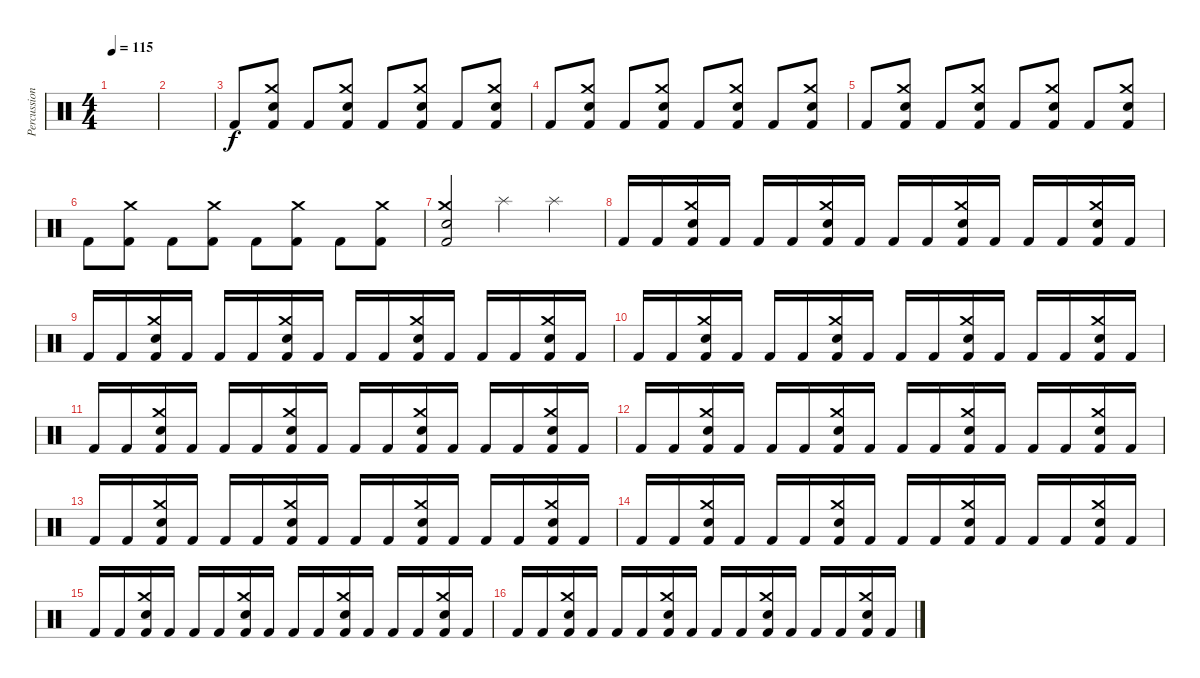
\track ("Percussion" "Percussion") {instrument percussion}
\staff {score}
\articulation defaults
\ts (4 4)
\tempo 115
\clef neutral
\ks c
|
|
"Kick (hit) 2".8 ("Crash medium (hit)" "Kick (hit) 2" "Electric Snare (hit)").8 "Kick (hit) 2".8 ("Crash medium (hit)" "Kick (hit) 2" "Electric Snare (hit)").8 "Kick (hit) 2".8 ("Crash medium (hit)" "Kick (hit) 2" "Electric Snare (hit)").8 "Kick (hit) 2".8 ("Crash medium (hit)" "Kick (hit) 2" "Electric Snare (hit)").8 |
"Kick (hit) 2".8 ("Crash medium (hit)" "Kick (hit) 2" "Electric Snare (hit)").8 "Kick (hit) 2".8 ("Crash medium (hit)" "Kick (hit) 2" "Electric Snare (hit)").8 "Kick (hit) 2".8 ("Crash medium (hit)" "Kick (hit) 2" "Electric Snare (hit)").8 "Kick (hit) 2".8 ("Crash medium (hit)" "Kick (hit) 2" "Electric Snare (hit)").8 |
"Kick (hit) 2".8 ("Crash medium (hit)" "Kick (hit) 2" "Electric Snare (hit)").8 "Kick (hit) 2".8 ("Crash medium (hit)" "Kick (hit) 2" "Electric Snare (hit)").8 "Kick (hit) 2".8 ("Crash medium (hit)" "Kick (hit) 2" "Electric Snare (hit)").8 "Kick (hit) 2".8 ("Crash medium (hit)" "Kick (hit) 2" "Electric Snare (hit)").8 |
"Kick (hit) 2".8 ("Kick (hit) 2" "Crash medium (hit)").8 "Kick (hit) 2".8 ("Kick (hit) 2" "Crash medium (hit)").8 "Kick (hit) 2".8 ("Kick (hit) 2" "Crash medium (hit)").8 "Kick (hit) 2".8 ("Kick (hit) 2" "Crash medium (hit)").8 |
("Kick (hit) 2" "Crash medium (hit)" "Electric Snare (hit)").2 "Splash (hit)".4 "Splash (hit)".4 |
"Kick (hit) 2".16 "Kick (hit) 2".16 ("Crash medium (hit)" "Electric Snare (hit)" "Kick (hit) 2").16 "Kick (hit) 2".16 "Kick (hit) 2".16 "Kick (hit) 2".16 ("Crash medium (hit)" "Electric Snare (hit)" "Kick (hit) 2").16 "Kick (hit) 2".16 "Kick (hit) 2".16 "Kick (hit) 2".16 ("Electric Snare (hit)" "Crash medium (hit)" "Kick (hit) 2").16 "Kick (hit) 2".16 "Kick (hit) 2".16 "Kick (hit) 2".16 ("Crash medium (hit)" "Electric Snare (hit)" "Kick (hit) 2").16 "Kick (hit) 2".16 |
"Kick (hit) 2".16 "Kick (hit) 2".16 ("Crash medium (hit)" "Electric Snare (hit)" "Kick (hit) 2").16 "Kick (hit) 2".16 "Kick (hit) 2".16 "Kick (hit) 2".16 ("Crash medium (hit)" "Electric Snare (hit)" "Kick (hit) 2").16 "Kick (hit) 2".16 "Kick (hit) 2".16 "Kick (hit) 2".16 ("Electric Snare (hit)" "Crash medium (hit)" "Kick (hit) 2").16 "Kick (hit) 2".16 "Kick (hit) 2".16 "Kick (hit) 2".16 ("Crash medium (hit)" "Electric Snare (hit)" "Kick (hit) 2").16 "Kick (hit) 2".16 |
"Kick (hit) 2".16 "Kick (hit) 2".16 ("Crash medium (hit)" "Electric Snare (hit)" "Kick (hit) 2").16 "Kick (hit) 2".16 "Kick (hit) 2".16 "Kick (hit) 2".16 ("Crash medium (hit)" "Electric Snare (hit)" "Kick (hit) 2").16 "Kick (hit) 2".16 "Kick (hit) 2".16 "Kick (hit) 2".16 ("Electric Snare (hit)" "Crash medium (hit)" "Kick (hit) 2").16 "Kick (hit) 2".16 "Kick (hit) 2".16 "Kick (hit) 2".16 ("Crash medium (hit)" "Electric Snare (hit)" "Kick (hit) 2").16 "Kick (hit) 2".16 |
"Kick (hit) 2".16 "Kick (hit) 2".16 ("Crash medium (hit)" "Electric Snare (hit)" "Kick (hit) 2").16 "Kick (hit) 2".16 "Kick (hit) 2".16 "Kick (hit) 2".16 ("Crash medium (hit)" "Electric Snare (hit)" "Kick (hit) 2").16 "Kick (hit) 2".16 "Kick (hit) 2".16 "Kick (hit) 2".16 ("Electric Snare (hit)" "Crash medium (hit)" "Kick (hit) 2").16 "Kick (hit) 2".16 "Kick (hit) 2".16 "Kick (hit) 2".16 ("Crash medium (hit)" "Electric Snare (hit)" "Kick (hit) 2").16 "Kick (hit) 2".16 |
"Kick (hit) 2".16 "Kick (hit) 2".16 ("Crash medium (hit)" "Electric Snare (hit)" "Kick (hit) 2").16 "Kick (hit) 2".16 "Kick (hit) 2".16 "Kick (hit) 2".16 ("Crash medium (hit)" "Electric Snare (hit)" "Kick (hit) 2").16 "Kick (hit) 2".16 "Kick (hit) 2".16 "Kick (hit) 2".16 ("Electric Snare (hit)" "Crash medium (hit)" "Kick (hit) 2").16 "Kick (hit) 2".16 "Kick (hit) 2".16 "Kick (hit) 2".16 ("Crash medium (hit)" "Electric Snare (hit)" "Kick (hit) 2").16 "Kick (hit) 2".16 |
"Kick (hit) 2".16 "Kick (hit) 2".16 ("Crash medium (hit)" "Electric Snare (hit)" "Kick (hit) 2").16 "Kick (hit) 2".16 "Kick (hit) 2".16 "Kick (hit) 2".16 ("Crash medium (hit)" "Electric Snare (hit)" "Kick (hit) 2").16 "Kick (hit) 2".16 "Kick (hit) 2".16 "Kick (hit) 2".16 ("Electric Snare (hit)" "Crash medium (hit)" "Kick (hit) 2").16 "Kick (hit) 2".16 "Kick (hit) 2".16 "Kick (hit) 2".16 ("Crash medium (hit)" "Electric Snare (hit)" "Kick (hit) 2").16 "Kick (hit) 2".16 |
"Kick (hit) 2".16 "Kick (hit) 2".16 ("Crash medium (hit)" "Electric Snare (hit)" "Kick (hit) 2").16 "Kick (hit) 2".16 "Kick (hit) 2".16 "Kick (hit) 2".16 ("Crash medium (hit)" "Electric Snare (hit)" "Kick (hit) 2").16 "Kick (hit) 2".16 "Kick (hit) 2".16 "Kick (hit) 2".16 ("Electric Snare (hit)" "Crash medium (hit)" "Kick (hit) 2").16 "Kick (hit) 2".16 "Kick (hit) 2".16 "Kick (hit) 2".16 ("Crash medium (hit)" "Electric Snare (hit)" "Kick (hit) 2").16 "Kick (hit) 2".16 |
"Kick (hit) 2".16 "Kick (hit) 2".16 ("Crash medium (hit)" "Electric Snare (hit)" "Kick (hit) 2").16 "Kick (hit) 2".16 "Kick (hit) 2".16 "Kick (hit) 2".16 ("Crash medium (hit)" "Electric Snare (hit)" "Kick (hit) 2").16 "Kick (hit) 2".16 "Kick (hit) 2".16 "Kick (hit) 2".16 ("Electric Snare (hit)" "Crash medium (hit)" "Kick (hit) 2").16 "Kick (hit) 2".16 "Kick (hit) 2".16 "Kick (hit) 2".16 ("Crash medium (hit)" "Electric Snare (hit)" "Kick (hit) 2").16 "Kick (hit) 2".16 |
"Kick (hit) 2".16 "Kick (hit) 2".16 ("Crash medium (hit)" "Electric Snare (hit)" "Kick (hit) 2").16 "Kick (hit) 2".16 "Kick (hit) 2".16 "Kick (hit) 2".16 ("Crash medium (hit)" "Electric Snare (hit)" "Kick (hit) 2").16 "Kick (hit) 2".16 "Kick (hit) 2".16 "Kick (hit) 2".16 ("Electric Snare (hit)" "Crash medium (hit)" "Kick (hit) 2").16 "Kick (hit) 2".16 "Kick (hit) 2".16 "Kick (hit) 2".16 ("Crash medium (hit)" "Electric Snare (hit)" "Kick (hit) 2").16 "Kick (hit) 2".16
